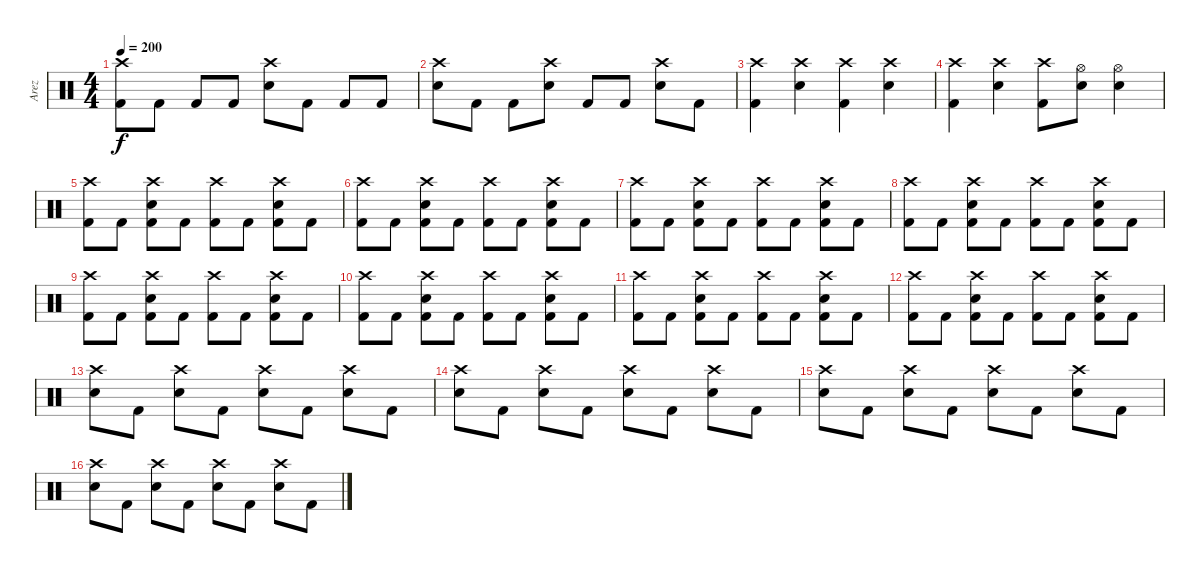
\track ("Arez" "Arez") {instrument percussion}
\staff {score}
\articulation defaults
\ts (4 4)
\tempo 200
\clef neutral
\ks c
("Crash high (hit)" "Kick (hit) 2").8{dy f} "Kick (hit) 2".8 "Kick (hit) 2".8 "Kick (hit) 2".8 ("Electric Snare (hit)" "Crash high (hit)").8 "Kick (hit) 2".8 "Kick (hit) 2".8 "Kick (hit) 2".8 |
("Crash high (hit)" "Electric Snare (hit)").8 "Kick (hit) 2".8 "Kick (hit) 2".8 ("Crash high (hit)" "Electric Snare (hit)").8 "Kick (hit) 2".8 "Kick (hit) 2".8 ("Electric Snare (hit)" "Crash high (hit)").8 "Kick (hit) 2".8 |
("Crash high (hit)" "Kick (hit) 2").4 ("Electric Snare (hit)" "Crash high (hit)").4 ("Crash high (hit)" "Kick (hit) 2").4 ("Electric Snare (hit)" "Crash high (hit)").4 |
("Crash high (hit)" "Kick (hit) 2").4 ("Electric Snare (hit)" "Crash high (hit)").4 ("Crash high (hit)" "Kick (hit) 2").8 ("Hi-Hat (open)" "Electric Snare (hit)").8 ("Hi-Hat (open)" "Electric Snare (hit)").4 |
("Kick (hit) 2" "Crash high (hit)").8 "Kick (hit) 2".8 ("Kick (hit) 2" "Electric Snare (hit)" "Crash high (hit)").8 "Kick (hit) 2".8 ("Kick (hit) 2" "Crash high (hit)").8 "Kick (hit) 2".8 ("Crash high (hit)" "Electric Snare (hit)" "Kick (hit) 2").8 "Kick (hit) 2".8 |
("Kick (hit) 2" "Crash high (hit)").8 "Kick (hit) 2".8 ("Kick (hit) 2" "Electric Snare (hit)" "Crash high (hit)").8 "Kick (hit) 2".8 ("Kick (hit) 2" "Crash high (hit)").8 "Kick (hit) 2".8 ("Crash high (hit)" "Electric Snare (hit)" "Kick (hit) 2").8 "Kick (hit) 2".8 |
("Kick (hit) 2" "Crash high (hit)").8 "Kick (hit) 2".8 ("Kick (hit) 2" "Electric Snare (hit)" "Crash high (hit)").8 "Kick (hit) 2".8 ("Kick (hit) 2" "Crash high (hit)").8 "Kick (hit) 2".8 ("Crash high (hit)" "Electric Snare (hit)" "Kick (hit) 2").8 "Kick (hit) 2".8 |
("Kick (hit) 2" "Crash high (hit)").8 "Kick (hit) 2".8 ("Kick (hit) 2" "Electric Snare (hit)" "Crash high (hit)").8 "Kick (hit) 2".8 ("Kick (hit) 2" "Crash high (hit)").8 "Kick (hit) 2".8 ("Crash high (hit)" "Electric Snare (hit)" "Kick (hit) 2").8 "Kick (hit) 2".8 |
("Kick (hit) 2" "Crash high (hit)").8 "Kick (hit) 2".8 ("Kick (hit) 2" "Electric Snare (hit)" "Crash high (hit)").8 "Kick (hit) 2".8 ("Kick (hit) 2" "Crash high (hit)").8 "Kick (hit) 2".8 ("Crash high (hit)" "Electric Snare (hit)" "Kick (hit) 2").8 "Kick (hit) 2".8 |
("Kick (hit) 2" "Crash high (hit)").8 "Kick (hit) 2".8 ("Kick (hit) 2" "Electric Snare (hit)" "Crash high (hit)").8 "Kick (hit) 2".8 ("Kick (hit) 2" "Crash high (hit)").8 "Kick (hit) 2".8 ("Crash high (hit)" "Electric Snare (hit)" "Kick (hit) 2").8 "Kick (hit) 2".8 |
("Kick (hit) 2" "Crash high (hit)").8 "Kick (hit) 2".8 ("Kick (hit) 2" "Electric Snare (hit)" "Crash high (hit)").8 "Kick (hit) 2".8 ("Kick (hit) 2" "Crash high (hit)").8 "Kick (hit) 2".8 ("Crash high (hit)" "Electric Snare (hit)" "Kick (hit) 2").8 "Kick (hit) 2".8 |
("Kick (hit) 2" "Crash high (hit)").8 "Kick (hit) 2".8 ("Kick (hit) 2" "Electric Snare (hit)" "Crash high (hit)").8 "Kick (hit) 2".8 ("Kick (hit) 2" "Crash high (hit)").8 "Kick (hit) 2".8 ("Crash high (hit)" "Electric Snare (hit)" "Kick (hit) 2").8 "Kick (hit) 2".8 |
("Crash high (hit)" "Electric Snare (hit)").8 "Kick (hit) 2".8 ("Electric Snare (hit)" "Crash high (hit)").8 "Kick (hit) 2".8 ("Electric Snare (hit)" "Crash high (hit)").8 "Kick (hit) 2".8 ("Electric Snare (hit)" "Crash high (hit)").8 "Kick (hit) 2".8 |
("Crash high (hit)" "Electric Snare (hit)").8 "Kick (hit) 2".8 ("Electric Snare (hit)" "Crash high (hit)").8 "Kick (hit) 2".8 ("Electric Snare (hit)" "Crash high (hit)").8 "Kick (hit) 2".8 ("Electric Snare (hit)" "Crash high (hit)").8 "Kick (hit) 2".8 |
("Crash high (hit)" "Electric Snare (hit)").8 "Kick (hit) 2".8 ("Electric Snare (hit)" "Crash high (hit)").8 "Kick (hit) 2".8 ("Electric Snare (hit)" "Crash high (hit)").8 "Kick (hit) 2".8 ("Electric Snare (hit)" "Crash high (hit)").8 "Kick (hit) 2".8 |
("Crash high (hit)" "Electric Snare (hit)").8 "Kick (hit) 2".8 ("Electric Snare (hit)" "Crash high (hit)").8 "Kick (hit) 2".8 ("Electric Snare (hit)" "Crash high (hit)").8 "Kick (hit) 2".8 ("Electric Snare (hit)" "Crash high (hit)").8 "Kick (hit) 2".8
